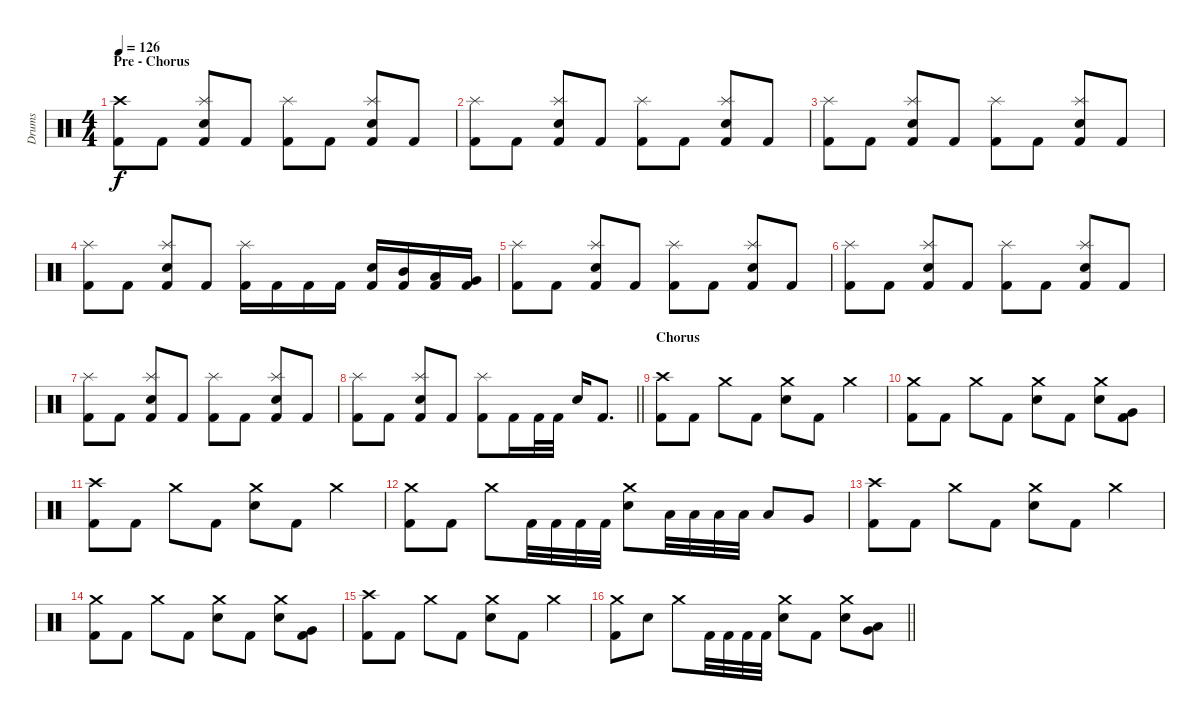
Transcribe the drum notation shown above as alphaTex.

\track ("Drums" "Drums") {instrument percussion}
\staff {score}
\articulation defaults
\ts (4 4)
\section ("" "Pre - Chorus")
\tempo 126
\clef neutral
\ks c
("Crash high (hit)" "Kick (hit) 2").8{dy f} "Kick (hit) 2".8 ("Splash (hit)" "Electric Snare (hit)" "Kick (hit) 2").8 "Kick (hit) 2".8 ("Splash (hit)" "Kick (hit) 2").8 "Kick (hit) 2".8 ("Splash (hit)" "Electric Snare (hit)" "Kick (hit) 2").8 "Kick (hit) 2".8 |
("Splash (hit)" "Kick (hit) 2").8 "Kick (hit) 2".8 ("Splash (hit)" "Electric Snare (hit)" "Kick (hit) 2").8 "Kick (hit) 2".8 ("Splash (hit)" "Kick (hit) 2").8 "Kick (hit) 2".8 ("Splash (hit)" "Electric Snare (hit)" "Kick (hit) 2").8 "Kick (hit) 2".8 |
("Splash (hit)" "Kick (hit) 2").8 "Kick (hit) 2".8 ("Splash (hit)" "Electric Snare (hit)" "Kick (hit) 2").8 "Kick (hit) 2".8 ("Splash (hit)" "Kick (hit) 2").8 "Kick (hit) 2".8 ("Splash (hit)" "Electric Snare (hit)" "Kick (hit) 2").8 "Kick (hit) 2".8 |
("Splash (hit)" "Kick (hit) 2").8 "Kick (hit) 2".8 ("Splash (hit)" "Electric Snare (hit)" "Kick (hit) 2").8 "Kick (hit) 2".8 ("Splash (hit)" "Kick (hit) 2").16 "Kick (hit) 2".16 "Kick (hit) 2".16 "Kick (hit) 2".16 ("Electric Snare (hit)" "Kick (hit) 2").16 ("Mid Tom (hit)" "Kick (hit) 2").16 ("Low Tom (hit)" "Kick (hit) 2").16 ("Very Low Tom (hit)" "Kick (hit) 2").16 |
("Splash (hit)" "Kick (hit) 2").8 "Kick (hit) 2".8 ("Splash (hit)" "Electric Snare (hit)" "Kick (hit) 2").8 "Kick (hit) 2".8 ("Splash (hit)" "Kick (hit) 2").8 "Kick (hit) 2".8 ("Splash (hit)" "Electric Snare (hit)" "Kick (hit) 2").8 "Kick (hit) 2".8 |
("Splash (hit)" "Kick (hit) 2").8 "Kick (hit) 2".8 ("Splash (hit)" "Electric Snare (hit)" "Kick (hit) 2").8 "Kick (hit) 2".8 ("Splash (hit)" "Kick (hit) 2").8 "Kick (hit) 2".8 ("Splash (hit)" "Electric Snare (hit)" "Kick (hit) 2").8 "Kick (hit) 2".8 |
("Splash (hit)" "Kick (hit) 2").8 "Kick (hit) 2".8 ("Splash (hit)" "Electric Snare (hit)" "Kick (hit) 2").8 "Kick (hit) 2".8 ("Splash (hit)" "Kick (hit) 2").8 "Kick (hit) 2".8 ("Splash (hit)" "Electric Snare (hit)" "Kick (hit) 2").8 "Kick (hit) 2".8 |
\barLineRight lightlight
("Splash (hit)" "Kick (hit) 2").8 "Kick (hit) 2".8 ("Splash (hit)" "Electric Snare (hit)" "Kick (hit) 2").8 "Kick (hit) 2".8 ("Splash (hit)" "Kick (hit) 2").8 "Kick (hit) 2".16 "Kick (hit) 2".32 "Kick (hit) 2".32 "Electric Snare (hit)".16 "Kick (hit) 2".8{d} |
\section ("" "Chorus")
("Crash high (hit)" "Kick (hit) 2").8 "Kick (hit) 2".8 "Crash medium (hit)".8 "Kick (hit) 2".8 ("Crash medium (hit)" "Electric Snare (hit)").8 "Kick (hit) 2".8 "Crash medium (hit)".4 |
("Crash medium (hit)" "Kick (hit) 2").8 "Kick (hit) 2".8 "Crash medium (hit)".8 "Kick (hit) 2".8 ("Crash medium (hit)" "Electric Snare (hit)").8 "Kick (hit) 2".8 ("Crash medium (hit)" "Electric Snare (hit)").8 ("Very Low Tom (hit)" "Kick (hit) 2").8 |
("Crash high (hit)" "Kick (hit) 2").8 "Kick (hit) 2".8 "Crash medium (hit)".8 "Kick (hit) 2".8 ("Crash medium (hit)" "Electric Snare (hit)").8 "Kick (hit) 2".8 "Crash medium (hit)".4 |
("Crash medium (hit)" "Kick (hit) 2").8 "Kick (hit) 2".8 "Crash medium (hit)".8 "Kick (hit) 2".32 "Kick (hit) 2".32 "Kick (hit) 2".32 "Kick (hit) 2".32 ("Crash medium (hit)" "Electric Snare (hit)").8 "Low Tom (hit)".32 "Low Tom (hit)".32 "Low Tom (hit)".32 "Low Tom (hit)".32 "Low Tom (hit)".8 "Very Low Tom (hit)".8 |
("Crash high (hit)" "Kick (hit) 2").8 "Kick (hit) 2".8 "Crash medium (hit)".8 "Kick (hit) 2".8 ("Crash medium (hit)" "Electric Snare (hit)").8 "Kick (hit) 2".8 "Crash medium (hit)".4 |
("Crash medium (hit)" "Kick (hit) 2").8 "Kick (hit) 2".8 "Crash medium (hit)".8 "Kick (hit) 2".8 ("Crash medium (hit)" "Electric Snare (hit)").8 "Kick (hit) 2".8 ("Crash medium (hit)" "Electric Snare (hit)").8 ("Very Low Tom (hit)" "Kick (hit) 2").8 |
("Crash high (hit)" "Kick (hit) 2").8 "Kick (hit) 2".8 "Crash medium (hit)".8 "Kick (hit) 2".8 ("Crash medium (hit)" "Electric Snare (hit)").8 "Kick (hit) 2".8 "Crash medium (hit)".4 |
\barLineRight lightlight
("Crash medium (hit)" "Kick (hit) 2").8 "Electric Snare (hit)".8 "Crash medium (hit)".8 "Kick (hit) 2".32 "Kick (hit) 2".32 "Kick (hit) 2".32 "Kick (hit) 2".32 ("Crash medium (hit)" "Electric Snare (hit)").8 "Kick (hit) 2".8 ("Crash medium (hit)" "Electric Snare (hit)").8 ("Low Tom (hit)" "Very Low Tom (hit)").8
